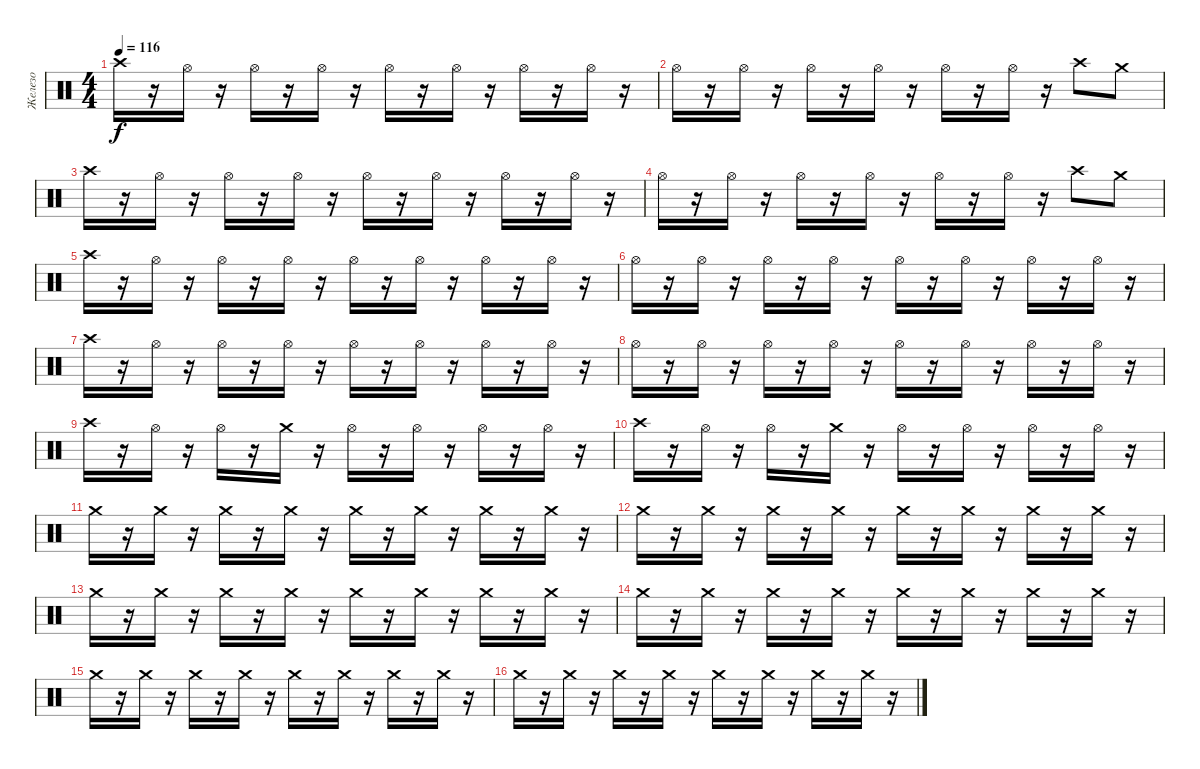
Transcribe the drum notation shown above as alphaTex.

\track ("Железо" "Железо") {instrument percussion}
\staff {score}
\articulation defaults
\ts (4 4)
\tempo 116
\clef neutral
\ks c "Crash high (hit)".16{dy f}
r.16 "Hi-Hat (open)".16 r.16 "Hi-Hat (open)".16 r.16 "Hi-Hat (open)".16 r.16 "Hi-Hat (open)".16 r.16 "Hi-Hat (open)".16 r.16 "Hi-Hat (open)".16 r.16 "Hi-Hat (open)".16 r.16 |
"Hi-Hat (open)".16 r.16 "Hi-Hat (open)".16 r.16 "Hi-Hat (open)".16 r.16 "Hi-Hat (open)".16 r.16 "Hi-Hat (open)".16 r.16 "Hi-Hat (open)".16 r.16 "Crash high (hit)".8 "Crash medium (hit)".8 |
"Crash high (hit)".16 r.16 "Hi-Hat (open)".16 r.16 "Hi-Hat (open)".16 r.16 "Hi-Hat (open)".16 r.16 "Hi-Hat (open)".16 r.16 "Hi-Hat (open)".16 r.16 "Hi-Hat (open)".16 r.16 "Hi-Hat (open)".16 r.16 |
"Hi-Hat (open)".16 r.16 "Hi-Hat (open)".16 r.16 "Hi-Hat (open)".16 r.16 "Hi-Hat (open)".16 r.16 "Hi-Hat (open)".16 r.16 "Hi-Hat (open)".16 r.16 "Crash high (hit)".8 "Crash medium (hit)".8 |
"Crash high (hit)".16 r.16 "Hi-Hat (open)".16 r.16 "Hi-Hat (open)".16 r.16 "Hi-Hat (open)".16 r.16 "Hi-Hat (open)".16 r.16 "Hi-Hat (open)".16 r.16 "Hi-Hat (open)".16 r.16 "Hi-Hat (open)".16 r.16 |
"Hi-Hat (open)".16 r.16 "Hi-Hat (open)".16 r.16 "Hi-Hat (open)".16 r.16 "Hi-Hat (open)".16 r.16 "Hi-Hat (open)".16 r.16 "Hi-Hat (open)".16 r.16 "Hi-Hat (open)".16 r.16 "Hi-Hat (open)".16 r.16 |
"Crash high (hit)".16 r.16 "Hi-Hat (open)".16 r.16 "Hi-Hat (open)".16 r.16 "Hi-Hat (open)".16 r.16 "Hi-Hat (open)".16 r.16 "Hi-Hat (open)".16 r.16 "Hi-Hat (open)".16 r.16 "Hi-Hat (open)".16 r.16 |
"Hi-Hat (open)".16 r.16 "Hi-Hat (open)".16 r.16 "Hi-Hat (open)".16 r.16 "Hi-Hat (open)".16 r.16 "Hi-Hat (open)".16 r.16 "Hi-Hat (open)".16 r.16 "Hi-Hat (open)".16 r.16 "Hi-Hat (open)".16 r.16 |
"Crash high (hit)".16 r.16 "Hi-Hat (open)".16 r.16 "Hi-Hat (open)".16 r.16 "Crash medium (hit)".16 r.16 "Hi-Hat (open)".16 r.16 "Hi-Hat (open)".16 r.16 "Hi-Hat (open)".16 r.16 "Hi-Hat (open)".16 r.16 |
"Crash high (hit)".16 r.16 "Hi-Hat (open)".16 r.16 "Hi-Hat (open)".16 r.16 "Crash medium (hit)".16 r.16 "Hi-Hat (open)".16 r.16 "Hi-Hat (open)".16 r.16 "Hi-Hat (open)".16 r.16 "Hi-Hat (open)".16 r.16 |
"Crash medium (hit)".16 r.16 "Crash medium (hit)".16 r.16 "Crash medium (hit)".16 r.16 "Crash medium (hit)".16 r.16 "Crash medium (hit)".16 r.16 "Crash medium (hit)".16 r.16 "Crash medium (hit)".16 r.16 "Crash medium (hit)".16 r.16 |
"Crash medium (hit)".16 r.16 "Crash medium (hit)".16 r.16 "Crash medium (hit)".16 r.16 "Crash medium (hit)".16 r.16 "Crash medium (hit)".16 r.16 "Crash medium (hit)".16 r.16 "Crash medium (hit)".16 r.16 "Crash medium (hit)".16 r.16 |
"Crash medium (hit)".16 r.16 "Crash medium (hit)".16 r.16 "Crash medium (hit)".16 r.16 "Crash medium (hit)".16 r.16 "Crash medium (hit)".16 r.16 "Crash medium (hit)".16 r.16 "Crash medium (hit)".16 r.16 "Crash medium (hit)".16 r.16 |
"Crash medium (hit)".16 r.16 "Crash medium (hit)".16 r.16 "Crash medium (hit)".16 r.16 "Crash medium (hit)".16 r.16 "Crash medium (hit)".16 r.16 "Crash medium (hit)".16 r.16 "Crash medium (hit)".16 r.16 "Crash medium (hit)".16 r.16 |
"Crash medium (hit)".16 r.16 "Crash medium (hit)".16 r.16 "Crash medium (hit)".16 r.16 "Crash medium (hit)".16 r.16 "Crash medium (hit)".16 r.16 "Crash medium (hit)".16 r.16 "Crash medium (hit)".16 r.16 "Crash medium (hit)".16 r.16 |
"Crash medium (hit)".16 r.16 "Crash medium (hit)".16 r.16 "Crash medium (hit)".16 r.16 "Crash medium (hit)".16 r.16 "Crash medium (hit)".16 r.16 "Crash medium (hit)".16 r.16 "Crash medium (hit)".16 r.16 "Crash medium (hit)".16 r.16
